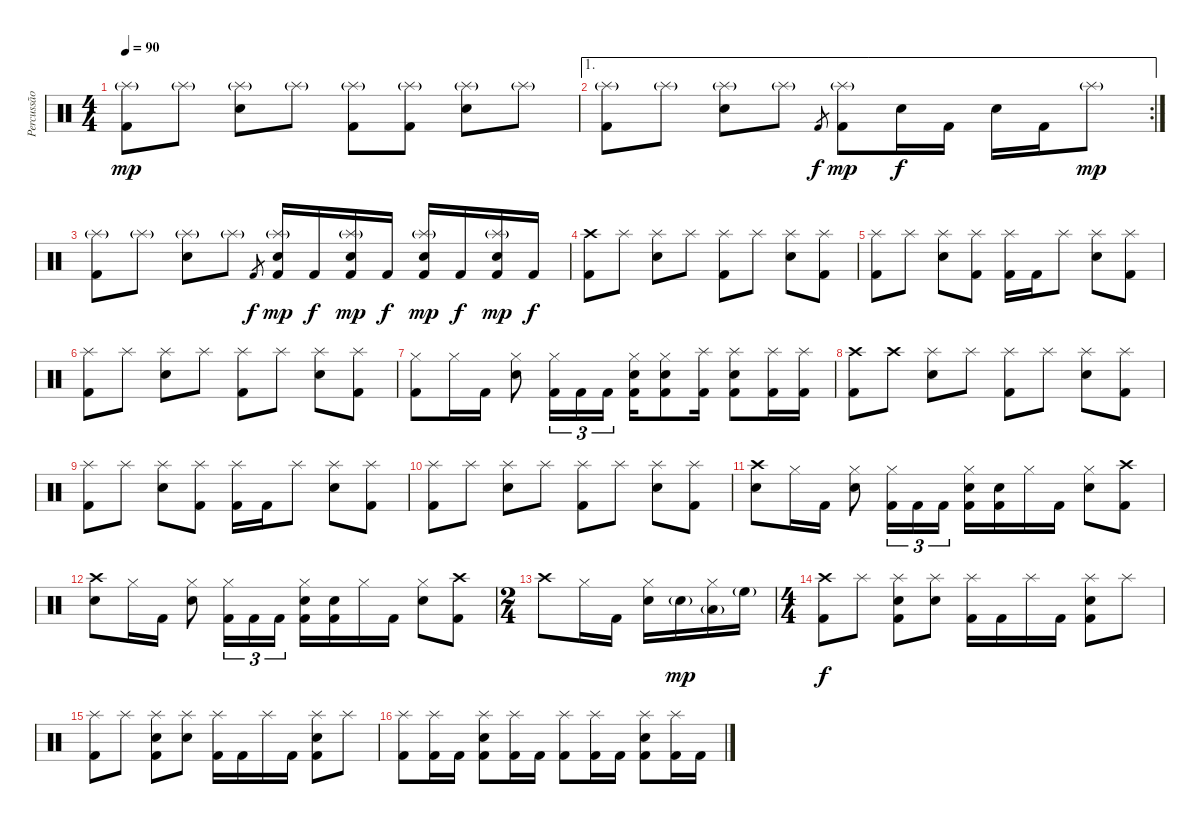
\track ("Percussão" "Percussão") {instrument percussion}
\staff {score}
\articulation defaults
\ts (4 4)
\tempo 90
\clef neutral
\ks c
("Kick (hit) 2" "Splash (hit)"{g}).8{dy mp} "Splash (hit)"{g}.8 ("Snare (hit) 2" "Splash (hit)"{g}).8 "Splash (hit)"{g}.8 ("Kick (hit) 2" "Splash (hit)"{g}).8 ("Kick (hit) 2" "Splash (hit)"{g}).8 ("Snare (hit) 2" "Splash (hit)"{g}).8 "Splash (hit)"{g}.8 |
\ae 1
\rc 2
("Kick (hit) 2" "Splash (hit)"{g}).8 "Splash (hit)"{g}.8 ("Snare (hit) 2" "Splash (hit)"{g}).8 "Splash (hit)"{g}.8 "Kick (hit) 2".8{gr dy f} ("Kick (hit) 2" "Splash (hit)"{g}).8{dy mp} "Snare (hit) 2".16{dy f} "Kick (hit) 2".16 "Snare (hit) 2".16 "Kick (hit) 2".16 "Splash (hit)"{g}.8{dy mp} |
("Kick (hit) 2" "Splash (hit)"{g}).8 "Splash (hit)"{g}.8 ("Snare (hit) 2" "Splash (hit)"{g}).8 "Splash (hit)"{g}.8 "Kick (hit) 2".8{gr dy f} ("Kick (hit) 2" "Snare (hit) 2" "Splash (hit)"{g}).16{dy mp} "Kick (hit) 2".16{dy f} ("Kick (hit) 2" "Snare (hit) 2" "Splash (hit)"{g}).16{dy mp} "Kick (hit) 2".16{dy f} ("Kick (hit) 2" "Snare (hit) 2" "Splash (hit)"{g}).16{dy mp} "Kick (hit) 2".16{dy f} ("Kick (hit) 2" "Snare (hit) 2" "Splash (hit)"{g}).16{dy mp} "Kick (hit) 2".16{dy f} |
("Kick (hit) 2" "Crash high (hit)").8 "Splash (hit)".8 ("Snare (hit) 2" "Splash (hit)").8 "Splash (hit)".8 ("Kick (hit) 2" "Splash (hit)").8 "Splash (hit)".8 ("Snare (hit) 2" "Splash (hit)").8 ("Kick (hit) 2" "Splash (hit)").8 |
("Kick (hit) 2" "Splash (hit)").8 "Splash (hit)".8 ("Snare (hit) 2" "Splash (hit)").8 ("Kick (hit) 2" "Splash (hit)").8 ("Kick (hit) 2" "Splash (hit)").16 "Kick (hit) 2".16 "Splash (hit)".8 ("Snare (hit) 2" "Splash (hit)").8 ("Kick (hit) 2" "Splash (hit)").8 |
("Kick (hit) 2" "Splash (hit)").8 "Splash (hit)".8 ("Snare (hit) 2" "Splash (hit)").8 "Splash (hit)".8 ("Kick (hit) 2" "Splash (hit)").8 "Splash (hit)".8 ("Snare (hit) 2" "Splash (hit)").8 ("Kick (hit) 2" "Splash (hit)").8 |
("Kick (hit) 2" "Hi-Hat (closed)").8 "Hi-Hat (closed)".16 "Kick (hit) 2".16 ("Snare (hit) 2" "Hi-Hat (closed)").8 ("Kick (hit) 2" "Hi-Hat (closed)").16{tu (3 2)} "Kick (hit) 2".16{tu (3 2)} "Kick (hit) 2".16{tu (3 2)} ("Kick (hit) 2" "Snare (hit) 2" "Hi-Hat (closed)").16 ("Kick (hit) 2" "Snare (hit) 2" "Hi-Hat (closed)").8 ("Kick (hit) 2" "Splash (hit)").16 ("Kick (hit) 2" "Snare (hit) 2" "Splash (hit)").8 ("Kick (hit) 2" "Splash (hit)").16 ("Kick (hit) 2" "Splash (hit)").16 |
("Kick (hit) 2" "Crash high (hit)").8 "Crash high (hit)".8 ("Snare (hit) 2" "Splash (hit)").8 "Splash (hit)".8 ("Kick (hit) 2" "Splash (hit)").8 "Splash (hit)".8 ("Snare (hit) 2" "Splash (hit)").8 ("Kick (hit) 2" "Splash (hit)").8 |
("Kick (hit) 2" "Splash (hit)").8 "Splash (hit)".8 ("Snare (hit) 2" "Splash (hit)").8 ("Kick (hit) 2" "Splash (hit)").8 ("Kick (hit) 2" "Splash (hit)").16 "Kick (hit) 2".16 "Splash (hit)".8 ("Snare (hit) 2" "Splash (hit)").8 ("Kick (hit) 2" "Splash (hit)").8 |
("Kick (hit) 2" "Splash (hit)").8 "Splash (hit)".8 ("Snare (hit) 2" "Splash (hit)").8 "Splash (hit)".8 ("Kick (hit) 2" "Splash (hit)").8 "Splash (hit)".8 ("Snare (hit) 2" "Splash (hit)").8 ("Kick (hit) 2" "Splash (hit)").8 |
("Snare (hit) 2" "Crash high (hit)").8 "Hi-Hat (closed)".16 "Kick (hit) 2".16 ("Snare (hit) 2" "Hi-Hat (closed)").8 ("Kick (hit) 2" "Hi-Hat (closed)").16{tu (3 2)} "Kick (hit) 2".16{tu (3 2)} "Kick (hit) 2".16{tu (3 2)} ("Kick (hit) 2" "Snare (hit) 2" "Hi-Hat (closed)").16 ("Kick (hit) 2" "Snare (hit) 2").16 "Hi-Hat (closed)".16 "Kick (hit) 2".16 ("Snare (hit) 2" "Hi-Hat (closed)").8 ("Kick (hit) 2" "Crash high (hit)").8 |
("Snare (hit) 2" "Crash high (hit)").8 "Hi-Hat (closed)".16 "Kick (hit) 2".16 ("Snare (hit) 2" "Hi-Hat (closed)").8 ("Kick (hit) 2" "Hi-Hat (closed)").16{tu (3 2)} "Kick (hit) 2".16{tu (3 2)} "Kick (hit) 2".16{tu (3 2)} ("Kick (hit) 2" "Snare (hit) 2" "Hi-Hat (closed)").16 ("Kick (hit) 2" "Snare (hit) 2").16 "Hi-Hat (closed)".16 "Kick (hit) 2".16 ("Snare (hit) 2" "Hi-Hat (closed)").8 ("Kick (hit) 2" "Crash high (hit)").8 |
\ts (2 4)
"Crash high (hit)".8 "Hi-Hat (closed)".16 "Kick (hit) 2".16 ("Snare (hit) 2" "Hi-Hat (closed)").16 "Snare (hit) 2"{g}.16{dy mp} ("Low Tom (hit)"{g} "Hi-Hat (closed)").16 "High Floor Tom (hit)"{g}.16 |
\ts (4 4)
("Kick (hit) 2" "Crash high (hit)").8{dy f} "Splash (hit)".8 ("Kick (hit) 2" "Snare (hit) 2" "Splash (hit)").8 ("Snare (hit) 2" "Splash (hit)").8 ("Kick (hit) 2" "Splash (hit)").16 "Kick (hit) 2".16 "Splash (hit)".16 "Kick (hit) 2".16 ("Kick (hit) 2" "Snare (hit) 2" "Splash (hit)").8 "Splash (hit)".8 |
("Kick (hit) 2" "Splash (hit)").8 "Splash (hit)".8 ("Kick (hit) 2" "Snare (hit) 2" "Splash (hit)").8 ("Snare (hit) 2" "Splash (hit)").8 ("Kick (hit) 2" "Splash (hit)").16 "Kick (hit) 2".16 "Splash (hit)".16 "Kick (hit) 2".16 ("Kick (hit) 2" "Snare (hit) 2" "Splash (hit)").8 "Splash (hit)".8 |
("Kick (hit) 2" "Splash (hit)").8 ("Kick (hit) 2" "Splash (hit)").16 "Kick (hit) 2".16 ("Kick (hit) 2" "Snare (hit) 2" "Splash (hit)").8 ("Kick (hit) 2" "Splash (hit)").16 "Kick (hit) 2".16 ("Kick (hit) 2" "Splash (hit)").8 ("Kick (hit) 2" "Splash (hit)").16 "Kick (hit) 2".16 ("Kick (hit) 2" "Snare (hit) 2" "Splash (hit)").8 ("Kick (hit) 2" "Splash (hit)").16 "Kick (hit) 2".16
